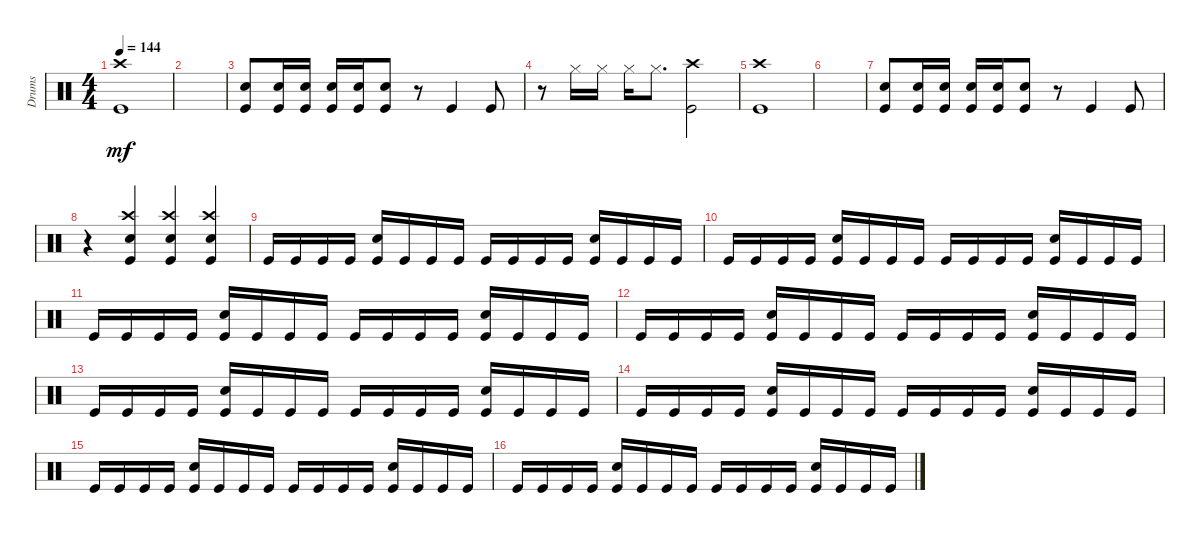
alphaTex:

\track ("Drums" "Drums") {instrument percussion}
\staff {score}
\articulation defaults
\ts (4 4)
\tempo 144
\clef neutral
\ks c
("Kick (hit)" "Crash high (hit)").1{dy mf} |
|
("Kick (hit)" "Snare (hit) 2").8 ("Kick (hit)" "Snare (hit) 2").16 ("Kick (hit)" "Snare (hit) 2").16 ("Kick (hit)" "Snare (hit) 2").16 ("Kick (hit)" "Snare (hit) 2").16 ("Kick (hit)" "Snare (hit) 2").8 r.8 "Kick (hit)".4 "Kick (hit)".8 |
r.8 "Hi-Hat (closed)".16 "Hi-Hat (closed)".16 "Hi-Hat (closed)".16 "Hi-Hat (closed)".8{d} ("Kick (hit)" "Crash high (hit)").2 |
("Kick (hit)" "Crash high (hit)").1 |
|
("Kick (hit)" "Snare (hit) 2").8 ("Kick (hit)" "Snare (hit) 2").16 ("Kick (hit)" "Snare (hit) 2").16 ("Kick (hit)" "Snare (hit) 2").16 ("Kick (hit)" "Snare (hit) 2").16 ("Kick (hit)" "Snare (hit) 2").8 r.8 "Kick (hit)".4 "Kick (hit)".8 |
r.4 ("Kick (hit)" "Crash high (hit)" "Snare (hit) 2").4 ("Kick (hit)" "Crash high (hit)" "Snare (hit) 2").4 ("Kick (hit)" "Crash high (hit)" "Snare (hit) 2").4 |
"Kick (hit)".16 "Kick (hit)".16 "Kick (hit)".16 "Kick (hit)".16 ("Kick (hit)" "Snare (hit) 2").16 "Kick (hit)".16 "Kick (hit)".16 "Kick (hit)".16 "Kick (hit)".16 "Kick (hit)".16 "Kick (hit)".16 "Kick (hit)".16 ("Kick (hit)" "Snare (hit) 2").16 "Kick (hit)".16 "Kick (hit)".16 "Kick (hit)".16 |
"Kick (hit)".16 "Kick (hit)".16 "Kick (hit)".16 "Kick (hit)".16 ("Kick (hit)" "Snare (hit) 2").16 "Kick (hit)".16 "Kick (hit)".16 "Kick (hit)".16 "Kick (hit)".16 "Kick (hit)".16 "Kick (hit)".16 "Kick (hit)".16 ("Kick (hit)" "Snare (hit) 2").16 "Kick (hit)".16 "Kick (hit)".16 "Kick (hit)".16 |
"Kick (hit)".16 "Kick (hit)".16 "Kick (hit)".16 "Kick (hit)".16 ("Kick (hit)" "Snare (hit) 2").16 "Kick (hit)".16 "Kick (hit)".16 "Kick (hit)".16 "Kick (hit)".16 "Kick (hit)".16 "Kick (hit)".16 "Kick (hit)".16 ("Kick (hit)" "Snare (hit) 2").16 "Kick (hit)".16 "Kick (hit)".16 "Kick (hit)".16 |
"Kick (hit)".16 "Kick (hit)".16 "Kick (hit)".16 "Kick (hit)".16 ("Kick (hit)" "Snare (hit) 2").16 "Kick (hit)".16 "Kick (hit)".16 "Kick (hit)".16 "Kick (hit)".16 "Kick (hit)".16 "Kick (hit)".16 "Kick (hit)".16 ("Kick (hit)" "Snare (hit) 2").16 "Kick (hit)".16 "Kick (hit)".16 "Kick (hit)".16 |
"Kick (hit)".16 "Kick (hit)".16 "Kick (hit)".16 "Kick (hit)".16 ("Kick (hit)" "Snare (hit) 2").16 "Kick (hit)".16 "Kick (hit)".16 "Kick (hit)".16 "Kick (hit)".16 "Kick (hit)".16 "Kick (hit)".16 "Kick (hit)".16 ("Kick (hit)" "Snare (hit) 2").16 "Kick (hit)".16 "Kick (hit)".16 "Kick (hit)".16 |
"Kick (hit)".16 "Kick (hit)".16 "Kick (hit)".16 "Kick (hit)".16 ("Kick (hit)" "Snare (hit) 2").16 "Kick (hit)".16 "Kick (hit)".16 "Kick (hit)".16 "Kick (hit)".16 "Kick (hit)".16 "Kick (hit)".16 "Kick (hit)".16 ("Kick (hit)" "Snare (hit) 2").16 "Kick (hit)".16 "Kick (hit)".16 "Kick (hit)".16 |
"Kick (hit)".16 "Kick (hit)".16 "Kick (hit)".16 "Kick (hit)".16 ("Kick (hit)" "Snare (hit) 2").16 "Kick (hit)".16 "Kick (hit)".16 "Kick (hit)".16 "Kick (hit)".16 "Kick (hit)".16 "Kick (hit)".16 "Kick (hit)".16 ("Kick (hit)" "Snare (hit) 2").16 "Kick (hit)".16 "Kick (hit)".16 "Kick (hit)".16 |
"Kick (hit)".16 "Kick (hit)".16 "Kick (hit)".16 "Kick (hit)".16 ("Kick (hit)" "Snare (hit) 2").16 "Kick (hit)".16 "Kick (hit)".16 "Kick (hit)".16 "Kick (hit)".16 "Kick (hit)".16 "Kick (hit)".16 "Kick (hit)".16 ("Kick (hit)" "Snare (hit) 2").16 "Kick (hit)".16 "Kick (hit)".16 "Kick (hit)".16
